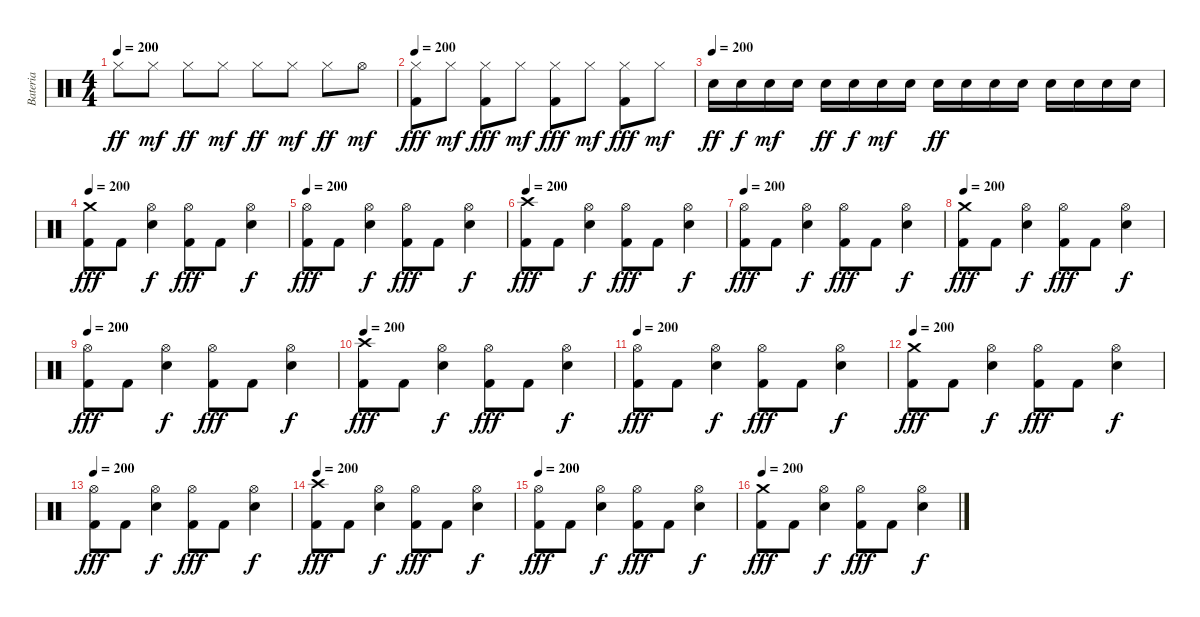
\track ("Bateria" "Bateria") {instrument percussion}
\staff {score}
\articulation defaults
\ts (4 4)
\tempo 200
\clef neutral
\ks c "Hi-Hat (closed)".8{dy ff} "Hi-Hat (closed)".8{dy mf} "Hi-Hat (closed)".8{dy ff} "Hi-Hat (closed)".8{dy mf} "Hi-Hat (closed)".8{dy ff} "Hi-Hat (closed)".8{dy mf} "Hi-Hat (closed)".8{dy ff} "Hi-Hat (open)".8{dy mf}
|
\tempo 200
("Hi-Hat (closed)" "Kick (hit) 2").8{dy fff} "Hi-Hat (closed)".8{dy mf} ("Hi-Hat (closed)" "Kick (hit) 2").8{dy fff} "Hi-Hat (closed)".8{dy mf} ("Hi-Hat (closed)" "Kick (hit) 2").8{dy fff} "Hi-Hat (closed)".8{dy mf} ("Hi-Hat (closed)" "Kick (hit) 2").8{dy fff} "Hi-Hat (closed)".8{dy mf} |
\tempo (200)
"Electric Snare (hit)".16{dy ff} "Electric Snare (hit)".16{dy f} "Electric Snare (hit)".16{dy mf} "Electric Snare (hit)".16 "Electric Snare (hit)".16{dy ff} "Electric Snare (hit)".16{dy f} "Electric Snare (hit)".16{dy mf} "Electric Snare (hit)".16 "Electric Snare (hit)".16{dy ff} "Electric Snare (hit)".16 "Electric Snare (hit)".16 "Electric Snare (hit)".16 "Electric Snare (hit)".16 "Electric Snare (hit)".16 "Electric Snare (hit)".16 "Electric Snare (hit)".16 |
\tempo 200
("Crash medium (hit)" "Kick (hit) 2").8{dy fff} "Kick (hit) 2".8 ("Hi-Hat (open)" "Electric Snare (hit)").4{dy f} ("Hi-Hat (open)" "Kick (hit) 2").8{dy fff} "Kick (hit) 2".8 ("Hi-Hat (open)" "Electric Snare (hit)").4{dy f} |
\tempo 200
("Hi-Hat (open)" "Kick (hit) 2").8{dy fff} "Kick (hit) 2".8 ("Hi-Hat (open)" "Electric Snare (hit)").4{dy f} ("Hi-Hat (open)" "Kick (hit) 2").8{dy fff} "Kick (hit) 2".8 ("Hi-Hat (open)" "Electric Snare (hit)").4{dy f} |
\tempo 200
("Crash high (hit)" "Kick (hit) 2").8{dy fff} "Kick (hit) 2".8 ("Hi-Hat (open)" "Electric Snare (hit)").4{dy f} ("Hi-Hat (open)" "Kick (hit) 2").8{dy fff} "Kick (hit) 2".8 ("Hi-Hat (open)" "Electric Snare (hit)").4{dy f} |
\tempo 200
("Hi-Hat (open)" "Kick (hit) 2").8{dy fff} "Kick (hit) 2".8 ("Hi-Hat (open)" "Electric Snare (hit)").4{dy f} ("Hi-Hat (open)" "Kick (hit) 2").8{dy fff} "Kick (hit) 2".8 ("Hi-Hat (open)" "Electric Snare (hit)").4{dy f} |
\tempo 200
("Crash medium (hit)" "Kick (hit) 2").8{dy fff} "Kick (hit) 2".8 ("Hi-Hat (open)" "Electric Snare (hit)").4{dy f} ("Hi-Hat (open)" "Kick (hit) 2").8{dy fff} "Kick (hit) 2".8 ("Hi-Hat (open)" "Electric Snare (hit)").4{dy f} |
\tempo 200
("Hi-Hat (open)" "Kick (hit) 2").8{dy fff} "Kick (hit) 2".8 ("Hi-Hat (open)" "Electric Snare (hit)").4{dy f} ("Hi-Hat (open)" "Kick (hit) 2").8{dy fff} "Kick (hit) 2".8 ("Hi-Hat (open)" "Electric Snare (hit)").4{dy f} |
\tempo 200
("Crash high (hit)" "Kick (hit) 2").8{dy fff} "Kick (hit) 2".8 ("Hi-Hat (open)" "Electric Snare (hit)").4{dy f} ("Hi-Hat (open)" "Kick (hit) 2").8{dy fff} "Kick (hit) 2".8 ("Hi-Hat (open)" "Electric Snare (hit)").4{dy f} |
\tempo 200
("Hi-Hat (open)" "Kick (hit) 2").8{dy fff} "Kick (hit) 2".8 ("Hi-Hat (open)" "Electric Snare (hit)").4{dy f} ("Hi-Hat (open)" "Kick (hit) 2").8{dy fff} "Kick (hit) 2".8 ("Hi-Hat (open)" "Electric Snare (hit)").4{dy f} |
\tempo 200
("Crash medium (hit)" "Kick (hit) 2").8{dy fff} "Kick (hit) 2".8 ("Hi-Hat (open)" "Electric Snare (hit)").4{dy f} ("Hi-Hat (open)" "Kick (hit) 2").8{dy fff} "Kick (hit) 2".8 ("Hi-Hat (open)" "Electric Snare (hit)").4{dy f} |
\tempo 200
("Hi-Hat (open)" "Kick (hit) 2").8{dy fff} "Kick (hit) 2".8 ("Hi-Hat (open)" "Electric Snare (hit)").4{dy f} ("Hi-Hat (open)" "Kick (hit) 2").8{dy fff} "Kick (hit) 2".8 ("Hi-Hat (open)" "Electric Snare (hit)").4{dy f} |
\tempo 200
("Crash high (hit)" "Kick (hit) 2").8{dy fff} "Kick (hit) 2".8 ("Hi-Hat (open)" "Electric Snare (hit)").4{dy f} ("Hi-Hat (open)" "Kick (hit) 2").8{dy fff} "Kick (hit) 2".8 ("Hi-Hat (open)" "Electric Snare (hit)").4{dy f} |
\tempo 200
("Hi-Hat (open)" "Kick (hit) 2").8{dy fff} "Kick (hit) 2".8 ("Hi-Hat (open)" "Electric Snare (hit)").4{dy f} ("Hi-Hat (open)" "Kick (hit) 2").8{dy fff} "Kick (hit) 2".8 ("Hi-Hat (open)" "Electric Snare (hit)").4{dy f} |
\tempo 200
("Crash medium (hit)" "Kick (hit) 2").8{dy fff} "Kick (hit) 2".8 ("Hi-Hat (open)" "Electric Snare (hit)").4{dy f} ("Hi-Hat (open)" "Kick (hit) 2").8{dy fff} "Kick (hit) 2".8 ("Hi-Hat (open)" "Electric Snare (hit)").4{dy f}
